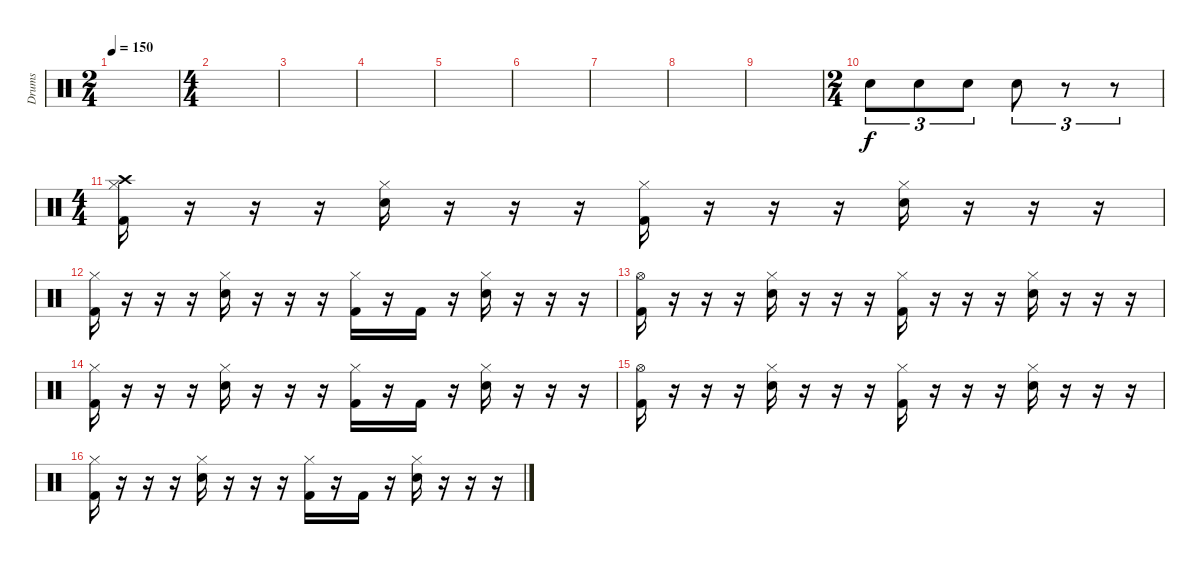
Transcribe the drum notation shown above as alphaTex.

\track ("Drums" "Drums") {instrument percussion}
\staff {score}
\articulation defaults
\ts (2 4)
\tempo 150
\clef neutral
\ks c
|
\ts (4 4)
|
|
|
|
|
|
|
|
\ts (2 4)
"Snare (hit) 2".8{tu (3 2)} "Snare (hit) 2".8{tu (3 2)} "Snare (hit) 2".8{tu (3 2)} "Snare (hit) 2".8{tu (3 2)} r.8{tu (3 2)} r.8{tu (3 2)} |
\ts (4 4)
("Crash high (hit)" "Hi-Hat (closed)" "Kick (hit) 2").16 r.16 r.16 r.16 ("Hi-Hat (closed)" "Snare (hit) 2").16 r.16 r.16 r.16 ("Hi-Hat (closed)" "Kick (hit) 2").16 r.16 r.16 r.16 ("Hi-Hat (closed)" "Snare (hit) 2").16 r.16 r.16 r.16 |
("Hi-Hat (closed)" "Kick (hit) 2").16 r.16 r.16 r.16 ("Hi-Hat (closed)" "Snare (hit) 2").16 r.16 r.16 r.16 ("Hi-Hat (closed)" "Kick (hit) 2").16 r.16 "Kick (hit) 2".16 r.16 ("Hi-Hat (closed)" "Snare (hit) 2").16 r.16 r.16 r.16 |
("Hi-Hat (open)" "Kick (hit) 2").16 r.16 r.16 r.16 ("Hi-Hat (closed)" "Snare (hit) 2").16 r.16 r.16 r.16 ("Hi-Hat (closed)" "Kick (hit) 2").16 r.16 r.16 r.16 ("Hi-Hat (closed)" "Snare (hit) 2").16 r.16 r.16 r.16 |
("Hi-Hat (closed)" "Kick (hit) 2").16 r.16 r.16 r.16 ("Hi-Hat (closed)" "Snare (hit) 2").16 r.16 r.16 r.16 ("Hi-Hat (closed)" "Kick (hit) 2").16 r.16 "Kick (hit) 2".16 r.16 ("Hi-Hat (closed)" "Snare (hit) 2").16 r.16 r.16 r.16 |
("Hi-Hat (open)" "Kick (hit) 2").16 r.16 r.16 r.16 ("Hi-Hat (closed)" "Snare (hit) 2").16 r.16 r.16 r.16 ("Hi-Hat (closed)" "Kick (hit) 2").16 r.16 r.16 r.16 ("Hi-Hat (closed)" "Snare (hit) 2").16 r.16 r.16 r.16 |
("Hi-Hat (closed)" "Kick (hit) 2").16 r.16 r.16 r.16 ("Hi-Hat (closed)" "Snare (hit) 2").16 r.16 r.16 r.16 ("Hi-Hat (closed)" "Kick (hit) 2").16 r.16 "Kick (hit) 2".16 r.16 ("Hi-Hat (closed)" "Snare (hit) 2").16 r.16 r.16 r.16
